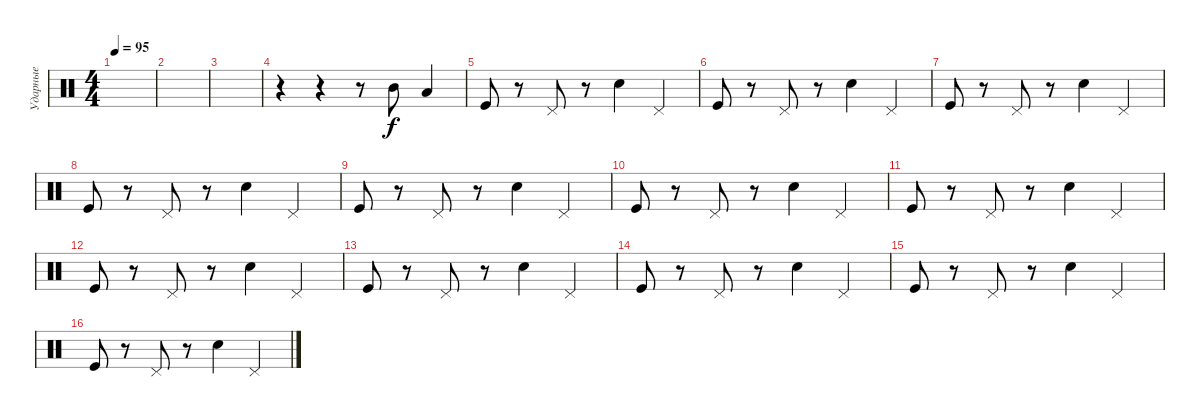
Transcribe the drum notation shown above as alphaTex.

\track ("Ударные" "Ударные") {instrument percussion}
\staff {score}
\articulation defaults
\ts (4 4)
\tempo 95
\clef neutral
\ks c
|
|
|
r.4 r.4 r.8 "Mid Tom (hit)".8 "Low Tom (hit)".4 |
"Kick (hit)".8 r.8 "Pedal Hi-Hat (hit)".8 r.8 "Electric Snare (hit)".4 "Pedal Hi-Hat (hit)".4 |
"Kick (hit)".8 r.8 "Pedal Hi-Hat (hit)".8 r.8 "Electric Snare (hit)".4 "Pedal Hi-Hat (hit)".4 |
"Kick (hit)".8 r.8 "Pedal Hi-Hat (hit)".8 r.8 "Electric Snare (hit)".4 "Pedal Hi-Hat (hit)".4 |
"Kick (hit)".8 r.8 "Pedal Hi-Hat (hit)".8 r.8 "Electric Snare (hit)".4 "Pedal Hi-Hat (hit)".4 |
"Kick (hit)".8 r.8 "Pedal Hi-Hat (hit)".8 r.8 "Electric Snare (hit)".4 "Pedal Hi-Hat (hit)".4 |
"Kick (hit)".8 r.8 "Pedal Hi-Hat (hit)".8 r.8 "Electric Snare (hit)".4 "Pedal Hi-Hat (hit)".4 |
"Kick (hit)".8 r.8 "Pedal Hi-Hat (hit)".8 r.8 "Electric Snare (hit)".4 "Pedal Hi-Hat (hit)".4 |
"Kick (hit)".8 r.8 "Pedal Hi-Hat (hit)".8 r.8 "Electric Snare (hit)".4 "Pedal Hi-Hat (hit)".4 |
\section ("" "")
"Kick (hit)".8 r.8 "Pedal Hi-Hat (hit)".8 r.8 "Electric Snare (hit)".4 "Pedal Hi-Hat (hit)".4 |
"Kick (hit)".8 r.8 "Pedal Hi-Hat (hit)".8 r.8 "Electric Snare (hit)".4 "Pedal Hi-Hat (hit)".4 |
"Kick (hit)".8 r.8 "Pedal Hi-Hat (hit)".8 r.8 "Electric Snare (hit)".4 "Pedal Hi-Hat (hit)".4 |
"Kick (hit)".8 r.8 "Pedal Hi-Hat (hit)".8 r.8 "Electric Snare (hit)".4 "Pedal Hi-Hat (hit)".4
